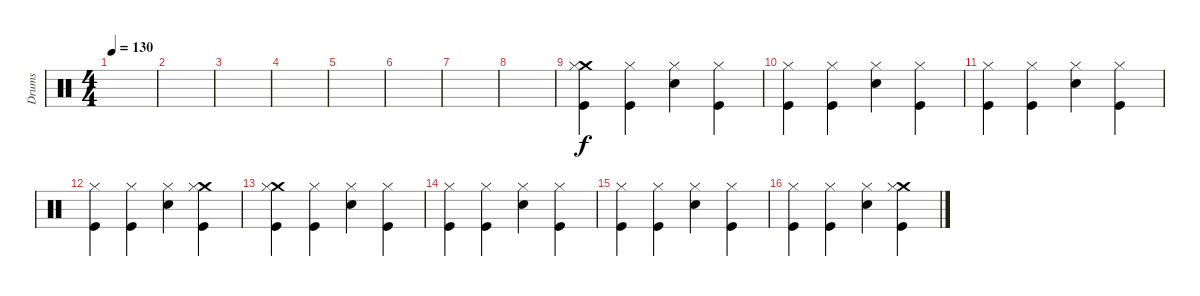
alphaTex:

\track ("Drums" "Drums") {instrument percussion}
\staff {score}
\articulation defaults
\ts (4 4)
\tempo 130
\clef neutral
\ks c
|
|
|
|
|
|
|
|
("Kick (hit)" "Crash medium (hit)" "Hi-Hat (closed)").4 ("Kick (hit)" "Hi-Hat (closed)").4 ("Snare (hit) 2" "Hi-Hat (closed)").4 ("Kick (hit)" "Hi-Hat (closed)").4 |
("Kick (hit)" "Hi-Hat (closed)").4 ("Kick (hit)" "Hi-Hat (closed)").4 ("Snare (hit) 2" "Hi-Hat (closed)").4 ("Kick (hit)" "Hi-Hat (closed)").4 |
("Kick (hit)" "Hi-Hat (closed)").4 ("Kick (hit)" "Hi-Hat (closed)").4 ("Snare (hit) 2" "Hi-Hat (closed)").4 ("Kick (hit)" "Hi-Hat (closed)").4 |
("Kick (hit)" "Hi-Hat (closed)").4 ("Kick (hit)" "Hi-Hat (closed)").4 ("Snare (hit) 2" "Hi-Hat (closed)").4 ("Kick (hit)" "Crash medium (hit)" "Hi-Hat (closed)").4 |
("Kick (hit)" "Crash medium (hit)" "Hi-Hat (closed)").4 ("Kick (hit)" "Hi-Hat (closed)").4 ("Snare (hit) 2" "Hi-Hat (closed)").4 ("Kick (hit)" "Hi-Hat (closed)").4 |
("Kick (hit)" "Hi-Hat (closed)").4 ("Kick (hit)" "Hi-Hat (closed)").4 ("Snare (hit) 2" "Hi-Hat (closed)").4 ("Kick (hit)" "Hi-Hat (closed)").4 |
("Kick (hit)" "Hi-Hat (closed)").4 ("Kick (hit)" "Hi-Hat (closed)").4 ("Snare (hit) 2" "Hi-Hat (closed)").4 ("Kick (hit)" "Hi-Hat (closed)").4 |
("Kick (hit)" "Hi-Hat (closed)").4 ("Kick (hit)" "Hi-Hat (closed)").4 ("Snare (hit) 2" "Hi-Hat (closed)").4 ("Kick (hit)" "Crash medium (hit)" "Hi-Hat (closed)").4
